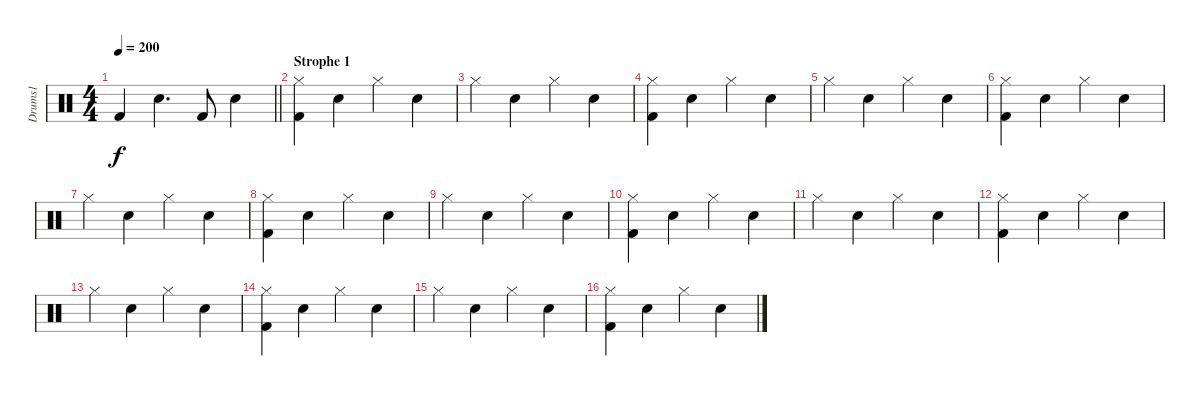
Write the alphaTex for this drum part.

\track ("Drums1" "Drums1") {instrument percussion}
\staff {score}
\articulation defaults
\ts (4 4)
\tempo 200
\clef neutral
\barLineRight lightlight
\ks c "Kick (hit) 2".4{dy f} "Snare (hit) 2".4{d} "Kick (hit) 2".8 "Snare (hit) 2".4
|
\section ("" "Strophe 1")
("Kick (hit) 2" "Hi-Hat (closed)").4 "Snare (hit) 2".4 "Hi-Hat (closed)".4 "Snare (hit) 2".4 |
"Hi-Hat (closed)".4 "Snare (hit) 2".4 "Hi-Hat (closed)".4 "Snare (hit) 2".4 |
("Kick (hit) 2" "Hi-Hat (closed)").4 "Snare (hit) 2".4 "Hi-Hat (closed)".4 "Snare (hit) 2".4 |
"Hi-Hat (closed)".4 "Snare (hit) 2".4 "Hi-Hat (closed)".4 "Snare (hit) 2".4 |
("Kick (hit) 2" "Hi-Hat (closed)").4 "Snare (hit) 2".4 "Hi-Hat (closed)".4 "Snare (hit) 2".4 |
"Hi-Hat (closed)".4 "Snare (hit) 2".4 "Hi-Hat (closed)".4 "Snare (hit) 2".4 |
("Kick (hit) 2" "Hi-Hat (closed)").4 "Snare (hit) 2".4 "Hi-Hat (closed)".4 "Snare (hit) 2".4 |
"Hi-Hat (closed)".4 "Snare (hit) 2".4 "Hi-Hat (closed)".4 "Snare (hit) 2".4 |
("Kick (hit) 2" "Hi-Hat (closed)").4 "Snare (hit) 2".4 "Hi-Hat (closed)".4 "Snare (hit) 2".4 |
"Hi-Hat (closed)".4 "Snare (hit) 2".4 "Hi-Hat (closed)".4 "Snare (hit) 2".4 |
("Kick (hit) 2" "Hi-Hat (closed)").4 "Snare (hit) 2".4 "Hi-Hat (closed)".4 "Snare (hit) 2".4 |
"Hi-Hat (closed)".4 "Snare (hit) 2".4 "Hi-Hat (closed)".4 "Snare (hit) 2".4 |
("Kick (hit) 2" "Hi-Hat (closed)").4 "Snare (hit) 2".4 "Hi-Hat (closed)".4 "Snare (hit) 2".4 |
"Hi-Hat (closed)".4 "Snare (hit) 2".4 "Hi-Hat (closed)".4 "Snare (hit) 2".4 |
("Kick (hit) 2" "Hi-Hat (closed)").4 "Snare (hit) 2".4 "Hi-Hat (closed)".4 "Snare (hit) 2".4
